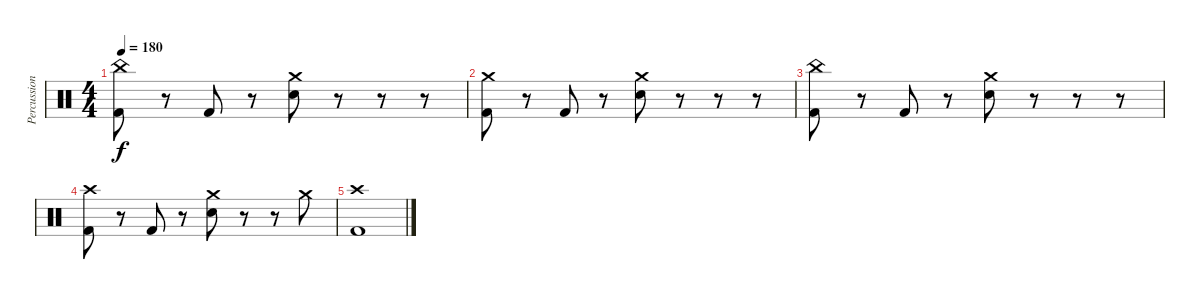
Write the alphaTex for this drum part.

\track ("Percussion" "Percussion") {instrument percussion}
\staff {score}
\articulation defaults
\ts (4 4)
\tempo 180
\clef neutral
\ks c
("China (hit)" "Kick (hit) 2").8{dy f} r.8 "Kick (hit) 2".8 r.8 ("Crash medium (hit)" "Snare (hit) 2").8 r.8 r.8 r.8 |
("Crash medium (hit)" "Kick (hit) 2").8 r.8 "Kick (hit) 2".8 r.8 ("Crash medium (hit)" "Snare (hit) 2").8 r.8 r.8 r.8 |
("China (hit)" "Kick (hit) 2").8 r.8 "Kick (hit) 2".8 r.8 ("Crash medium (hit)" "Snare (hit) 2").8 r.8 r.8 r.8 |
("Crash high (hit)" "Kick (hit) 2").8 r.8 "Kick (hit) 2".8 r.8 ("Crash medium (hit)" "Snare (hit) 2").8 r.8 r.8 "Crash medium (hit)".8 |
("Crash high (hit)" "Kick (hit) 2").1
